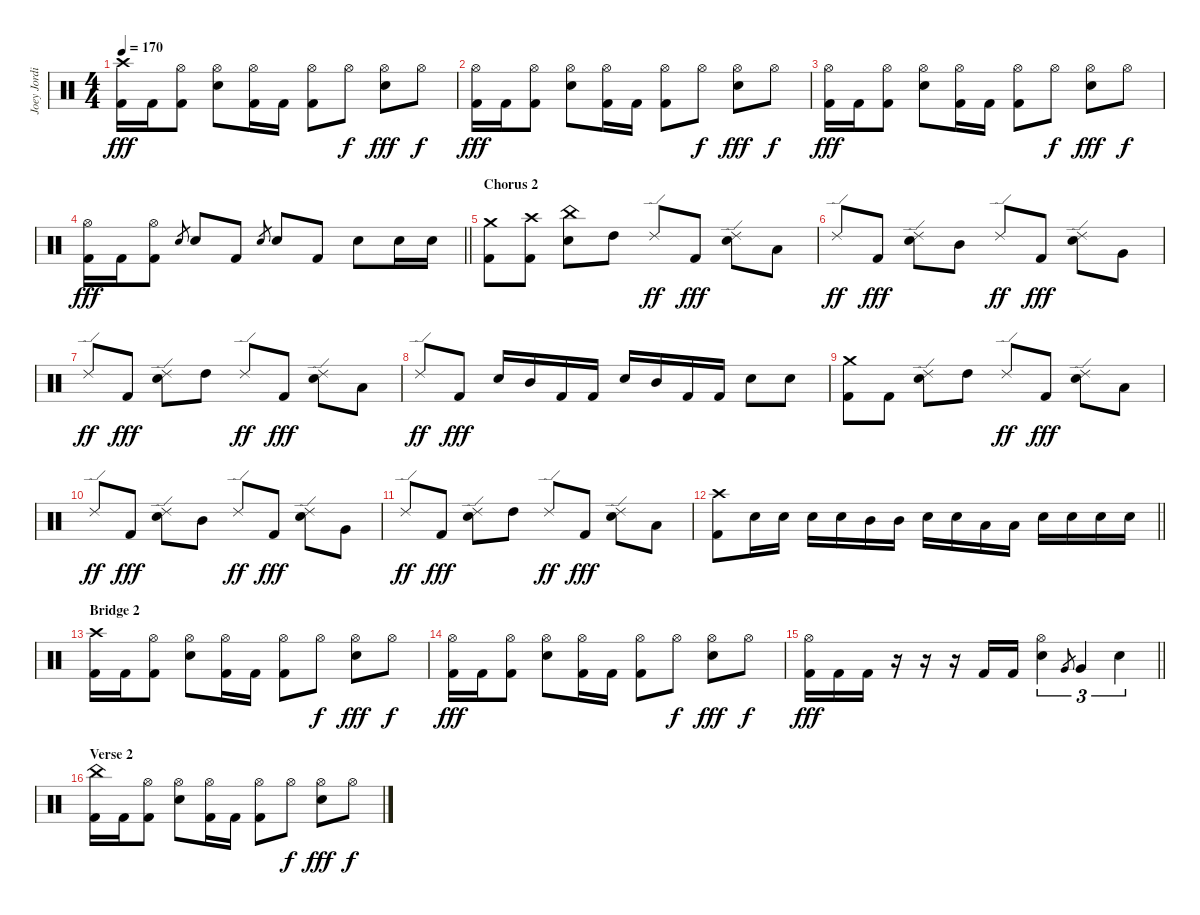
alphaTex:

\track ("Joey Jordison" "Joey Jordi") {instrument percussion}
\staff {score}
\articulation defaults
\ts (4 4)
\tempo 170
\clef neutral
\ks c
("Crash high (hit)" "Kick (hit) 2").16{dy fff} "Kick (hit) 2".16 ("Hi-Hat (open)" "Kick (hit) 2").8 ("Hi-Hat (open)" "Electric Snare (hit)").8 ("Hi-Hat (open)" "Kick (hit) 2").16 "Kick (hit) 2".16 ("Hi-Hat (open)" "Kick (hit) 2").8 "Hi-Hat (open)".8{dy f} ("Hi-Hat (open)" "Electric Snare (hit)").8{dy fff} "Hi-Hat (open)".8{dy f} |
("Hi-Hat (open)" "Kick (hit) 2").16{dy fff} "Kick (hit) 2".16 ("Hi-Hat (open)" "Kick (hit) 2").8 ("Hi-Hat (open)" "Electric Snare (hit)").8 ("Hi-Hat (open)" "Kick (hit) 2").16 "Kick (hit) 2".16 ("Hi-Hat (open)" "Kick (hit) 2").8 "Hi-Hat (open)".8{dy f} ("Hi-Hat (open)" "Electric Snare (hit)").8{dy fff} "Hi-Hat (open)".8{dy f} |
("Hi-Hat (open)" "Kick (hit) 2").16{dy fff} "Kick (hit) 2".16 ("Hi-Hat (open)" "Kick (hit) 2").8 ("Hi-Hat (open)" "Electric Snare (hit)").8 ("Hi-Hat (open)" "Kick (hit) 2").16 "Kick (hit) 2".16 ("Hi-Hat (open)" "Kick (hit) 2").8 "Hi-Hat (open)".8{dy f} ("Hi-Hat (open)" "Electric Snare (hit)").8{dy fff} "Hi-Hat (open)".8{dy f} |
\barLineRight lightlight
("Hi-Hat (open)" "Kick (hit) 2").16{dy fff} "Kick (hit) 2".16 ("Hi-Hat (open)" "Kick (hit) 2").8 "Electric Snare (hit)".8{gr} "Electric Snare (hit)".8 "Kick (hit) 2".8 "Electric Snare (hit)".8{gr} "Electric Snare (hit)".8 "Kick (hit) 2".8 "Electric Snare (hit)".8 "Electric Snare (hit)".16 "Electric Snare (hit)".16 |
\section ("" "Chorus 2")
("Crash medium (hit)" "Kick (hit) 2").8 ("Crash high (hit)" "Kick (hit) 2").8 ("China (hit)" "Electric Snare (hit)").8 "High Tom (hit)".8 "Ride (edge) 2".8{dy ff} "Kick (hit) 2".8{dy fff} ("Ride (edge) 2" "Electric Snare (hit)").8 "Low Tom (hit)".8 |
"Ride (edge) 2".8{dy ff} "Kick (hit) 2".8{dy fff} ("Ride (edge) 2" "Electric Snare (hit)").8 "Mid Tom (hit)".8 "Ride (edge) 2".8{dy ff} "Kick (hit) 2".8{dy fff} ("Ride (edge) 2" "Electric Snare (hit)").8 "Very Low Tom (hit)".8 |
"Ride (edge) 2".8{dy ff} "Kick (hit) 2".8{dy fff} ("Ride (edge) 2" "Electric Snare (hit)").8 "High Tom (hit)".8 "Ride (edge) 2".8{dy ff} "Kick (hit) 2".8{dy fff} ("Ride (edge) 2" "Electric Snare (hit)").8 "Low Tom (hit)".8 |
"Ride (edge) 2".8{dy ff} "Kick (hit) 2".8{dy fff} "Electric Snare (hit)".16 "Mid Tom (hit)".16 "Kick (hit) 2".16 "Kick (hit) 2".16 "Electric Snare (hit)".16 "Mid Tom (hit)".16 "Kick (hit) 2".16 "Kick (hit) 2".16 "Electric Snare (hit)".8 "Electric Snare (hit)".8 |
("Crash medium (hit)" "Kick (hit) 2").8 "Kick (hit) 2".8 ("Ride (edge) 2" "Electric Snare (hit)").8 "High Tom (hit)".8 "Ride (edge) 2".8{dy ff} "Kick (hit) 2".8{dy fff} ("Ride (edge) 2" "Electric Snare (hit)").8 "Low Tom (hit)".8 |
"Ride (edge) 2".8{dy ff} "Kick (hit) 2".8{dy fff} ("Ride (edge) 2" "Electric Snare (hit)").8 "Mid Tom (hit)".8 "Ride (edge) 2".8{dy ff} "Kick (hit) 2".8{dy fff} ("Ride (edge) 2" "Electric Snare (hit)").8 "Very Low Tom (hit)".8 |
"Ride (edge) 2".8{dy ff} "Kick (hit) 2".8{dy fff} ("Ride (edge) 2" "Electric Snare (hit)").8 "High Tom (hit)".8 "Ride (edge) 2".8{dy ff} "Kick (hit) 2".8{dy fff} ("Ride (edge) 2" "Electric Snare (hit)").8 "Low Tom (hit)".8 |
\barLineRight lightlight
("Crash high (hit)" "Kick (hit) 2").8 "Electric Snare (hit)".16 "Electric Snare (hit)".16 "Electric Snare (hit)".16 "Electric Snare (hit)".16 "Mid Tom (hit)".16 "Mid Tom (hit)".16 "Electric Snare (hit)".16 "Electric Snare (hit)".16 "Low Tom (hit)".16 "Low Tom (hit)".16 "Electric Snare (hit)".16 "Electric Snare (hit)".16 "Electric Snare (hit)".16 "Electric Snare (hit)".16 |
\section ("" "Bridge 2")
("Crash high (hit)" "Kick (hit) 2").16 "Kick (hit) 2".16 ("Hi-Hat (open)" "Kick (hit) 2").8 ("Hi-Hat (open)" "Electric Snare (hit)").8 ("Hi-Hat (open)" "Kick (hit) 2").16 "Kick (hit) 2".16 ("Hi-Hat (open)" "Kick (hit) 2").8 "Hi-Hat (open)".8{dy f} ("Hi-Hat (open)" "Electric Snare (hit)").8{dy fff} "Hi-Hat (open)".8{dy f} |
("Hi-Hat (open)" "Kick (hit) 2").16{dy fff} "Kick (hit) 2".16 ("Hi-Hat (open)" "Kick (hit) 2").8 ("Hi-Hat (open)" "Electric Snare (hit)").8 ("Hi-Hat (open)" "Kick (hit) 2").16 "Kick (hit) 2".16 ("Hi-Hat (open)" "Kick (hit) 2").8 "Hi-Hat (open)".8{dy f} ("Hi-Hat (open)" "Electric Snare (hit)").8{dy fff} "Hi-Hat (open)".8{dy f} |
\barLineRight lightlight
("Hi-Hat (open)" "Kick (hit) 2").16{dy fff} "Kick (hit) 2".16 "Kick (hit) 2".16 r.16 r.16 r.16 "Kick (hit) 2".16 "Kick (hit) 2".16 ("Hi-Hat (open)" "Electric Snare (hit)").4{tu (3 2)} "Very Low Tom (hit)".8{gr} "Very Low Tom (hit)".4{tu (3 2)} "Electric Snare (hit)".4{tu (3 2)} |
\section ("" "Verse 2")
("China (hit)" "Kick (hit) 2").16 "Kick (hit) 2".16 ("Hi-Hat (open)" "Kick (hit) 2").8 ("Hi-Hat (open)" "Electric Snare (hit)").8 ("Hi-Hat (open)" "Kick (hit) 2").16 "Kick (hit) 2".16 ("Hi-Hat (open)" "Kick (hit) 2").8 "Hi-Hat (open)".8{dy f} ("Hi-Hat (open)" "Electric Snare (hit)").8{dy fff} "Hi-Hat (open)".8{dy f}
